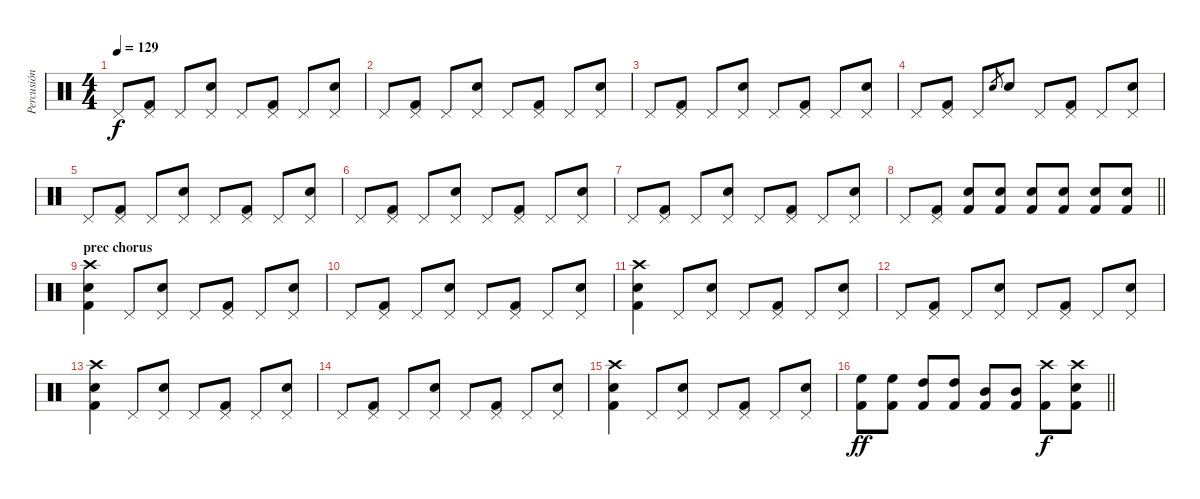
\track ("Percusión" "Percusión") {instrument percussion}
\staff {score}
\articulation defaults
\ts (4 4)
\tempo 129
\clef neutral
\ks c "Pedal Hi-Hat (hit)".8{dy f}
("Pedal Hi-Hat (hit)" "Kick (hit) 2").8 "Pedal Hi-Hat (hit)".8 ("Electric Snare (hit)" "Pedal Hi-Hat (hit)").8 "Pedal Hi-Hat (hit)".8 ("Pedal Hi-Hat (hit)" "Kick (hit) 2").8 "Pedal Hi-Hat (hit)".8 ("Electric Snare (hit)" "Pedal Hi-Hat (hit)").8 |
"Pedal Hi-Hat (hit)".8 ("Pedal Hi-Hat (hit)" "Kick (hit) 2").8 "Pedal Hi-Hat (hit)".8 ("Electric Snare (hit)" "Pedal Hi-Hat (hit)").8 "Pedal Hi-Hat (hit)".8 ("Pedal Hi-Hat (hit)" "Kick (hit) 2").8 "Pedal Hi-Hat (hit)".8 ("Electric Snare (hit)" "Pedal Hi-Hat (hit)").8 |
"Pedal Hi-Hat (hit)".8 ("Pedal Hi-Hat (hit)" "Kick (hit) 2").8 "Pedal Hi-Hat (hit)".8 ("Electric Snare (hit)" "Pedal Hi-Hat (hit)").8 "Pedal Hi-Hat (hit)".8 ("Pedal Hi-Hat (hit)" "Kick (hit) 2").8 "Pedal Hi-Hat (hit)".8 ("Electric Snare (hit)" "Pedal Hi-Hat (hit)").8 |
"Pedal Hi-Hat (hit)".8 ("Pedal Hi-Hat (hit)" "Kick (hit) 2").8 "Pedal Hi-Hat (hit)".8 "Snare (hit) 2".8{gr} "Electric Snare (hit)".8 "Pedal Hi-Hat (hit)".8 ("Pedal Hi-Hat (hit)" "Kick (hit) 2").8 "Pedal Hi-Hat (hit)".8 ("Electric Snare (hit)" "Pedal Hi-Hat (hit)").8 |
"Pedal Hi-Hat (hit)".8 ("Pedal Hi-Hat (hit)" "Kick (hit) 2").8 "Pedal Hi-Hat (hit)".8 ("Electric Snare (hit)" "Pedal Hi-Hat (hit)").8 "Pedal Hi-Hat (hit)".8 ("Pedal Hi-Hat (hit)" "Kick (hit) 2").8 "Pedal Hi-Hat (hit)".8 ("Electric Snare (hit)" "Pedal Hi-Hat (hit)").8 |
"Pedal Hi-Hat (hit)".8 ("Pedal Hi-Hat (hit)" "Kick (hit) 2").8 "Pedal Hi-Hat (hit)".8 ("Electric Snare (hit)" "Pedal Hi-Hat (hit)").8 "Pedal Hi-Hat (hit)".8 ("Pedal Hi-Hat (hit)" "Kick (hit) 2").8 "Pedal Hi-Hat (hit)".8 ("Electric Snare (hit)" "Pedal Hi-Hat (hit)").8 |
"Pedal Hi-Hat (hit)".8 ("Pedal Hi-Hat (hit)" "Kick (hit) 2").8 "Pedal Hi-Hat (hit)".8 ("Electric Snare (hit)" "Pedal Hi-Hat (hit)").8 "Pedal Hi-Hat (hit)".8 ("Pedal Hi-Hat (hit)" "Kick (hit) 2").8 "Pedal Hi-Hat (hit)".8 ("Electric Snare (hit)" "Pedal Hi-Hat (hit)").8 |
\barLineRight lightlight "Pedal Hi-Hat (hit)".8
("Pedal Hi-Hat (hit)" "Kick (hit) 2").8 ("Electric Snare (hit)" "Kick (hit) 2").8 ("Electric Snare (hit)" "Kick (hit) 2").8 ("Electric Snare (hit)" "Kick (hit) 2").8 ("Electric Snare (hit)" "Kick (hit) 2").8 ("Electric Snare (hit)" "Kick (hit) 2").8 ("Electric Snare (hit)" "Kick (hit) 2").8 |
\section ("" "prec chorus")
("Crash high (hit)" "Electric Snare (hit)" "Kick (hit) 2").4 "Pedal Hi-Hat (hit)".8 ("Electric Snare (hit)" "Pedal Hi-Hat (hit)").8 "Pedal Hi-Hat (hit)".8 ("Pedal Hi-Hat (hit)" "Kick (hit) 2").8 "Pedal Hi-Hat (hit)".8 ("Electric Snare (hit)" "Pedal Hi-Hat (hit)").8 |
"Pedal Hi-Hat (hit)".8 ("Pedal Hi-Hat (hit)" "Kick (hit) 2").8 "Pedal Hi-Hat (hit)".8 ("Electric Snare (hit)" "Pedal Hi-Hat (hit)").8 "Pedal Hi-Hat (hit)".8 ("Pedal Hi-Hat (hit)" "Kick (hit) 2").8 "Pedal Hi-Hat (hit)".8 ("Electric Snare (hit)" "Pedal Hi-Hat (hit)").8 |
("Crash high (hit)" "Electric Snare (hit)" "Kick (hit) 2").4 "Pedal Hi-Hat (hit)".8 ("Electric Snare (hit)" "Pedal Hi-Hat (hit)").8 "Pedal Hi-Hat (hit)".8 ("Pedal Hi-Hat (hit)" "Kick (hit) 2").8 "Pedal Hi-Hat (hit)".8 ("Electric Snare (hit)" "Pedal Hi-Hat (hit)").8 |
"Pedal Hi-Hat (hit)".8 ("Pedal Hi-Hat (hit)" "Kick (hit) 2").8 "Pedal Hi-Hat (hit)".8 ("Electric Snare (hit)" "Pedal Hi-Hat (hit)").8 "Pedal Hi-Hat (hit)".8 ("Pedal Hi-Hat (hit)" "Kick (hit) 2").8 "Pedal Hi-Hat (hit)".8 ("Electric Snare (hit)" "Pedal Hi-Hat (hit)").8 |
("Crash high (hit)" "Electric Snare (hit)" "Kick (hit) 2").4 "Pedal Hi-Hat (hit)".8 ("Electric Snare (hit)" "Pedal Hi-Hat (hit)").8 "Pedal Hi-Hat (hit)".8 ("Pedal Hi-Hat (hit)" "Kick (hit) 2").8 "Pedal Hi-Hat (hit)".8 ("Electric Snare (hit)" "Pedal Hi-Hat (hit)").8 |
"Pedal Hi-Hat (hit)".8 ("Pedal Hi-Hat (hit)" "Kick (hit) 2").8 "Pedal Hi-Hat (hit)".8 ("Electric Snare (hit)" "Pedal Hi-Hat (hit)").8 "Pedal Hi-Hat (hit)".8 ("Pedal Hi-Hat (hit)" "Kick (hit) 2").8 "Pedal Hi-Hat (hit)".8 ("Electric Snare (hit)" "Pedal Hi-Hat (hit)").8 |
("Crash high (hit)" "Electric Snare (hit)" "Kick (hit) 2").4 "Pedal Hi-Hat (hit)".8 ("Electric Snare (hit)" "Pedal Hi-Hat (hit)").8 "Pedal Hi-Hat (hit)".8 ("Pedal Hi-Hat (hit)" "Kick (hit) 2").8 "Pedal Hi-Hat (hit)".8 ("Electric Snare (hit)" "Pedal Hi-Hat (hit)").8 |
\barLineRight lightlight
("High Floor Tom (hit)" "Kick (hit) 2").8{dy ff} ("High Floor Tom (hit)" "Kick (hit) 2").8 ("High Tom (hit)" "Kick (hit) 2").8 ("High Tom (hit)" "Kick (hit) 2").8 ("Mid Tom (hit)" "Kick (hit) 2").8 ("Mid Tom (hit)" "Kick (hit) 2").8 ("Crash high (hit)" "Kick (hit) 2").8{dy f} ("Crash high (hit)" "Electric Snare (hit)" "Kick (hit) 2").8
